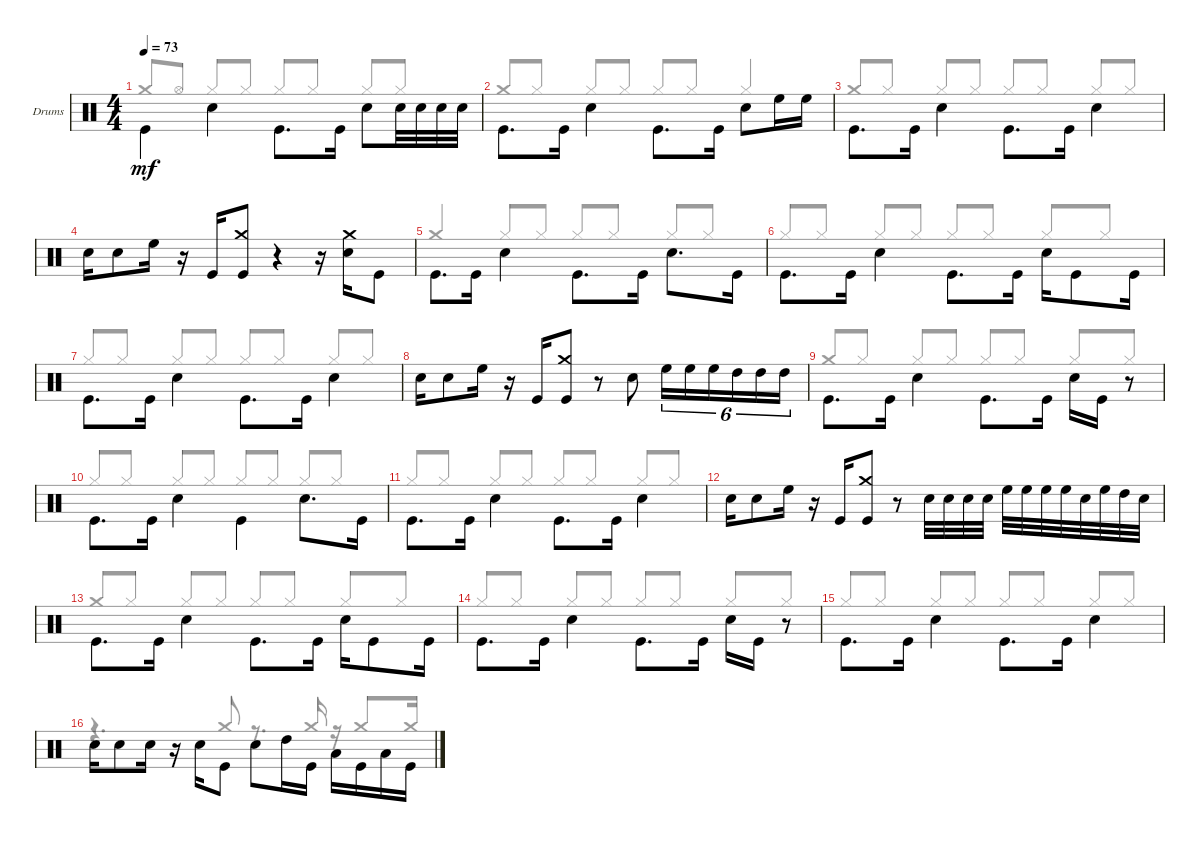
\defaultSystemsLayout 4
\bracketExtendMode groupsimilarinstruments
\firstSystemTrackNameOrientation horizontal
\otherSystemsTrackNameOrientation horizontal
\track ("Drumkit" "Drums") {solo instrument percussion}
\staff {score}
\articulation defaults
\voice
\ts (4 4)
\tempo 73
\clef neutral
\ks c "Kick (hit)".4{dy mf beam invert} "Snare (hit) 2".4{beam invert} "Kick (hit)".8{d beam invert} "Kick (hit)".16 "Snare (hit) 2".8{beam invert} "Snare (hit) 2".32 "Snare (hit) 2".32 "Snare (hit) 2".32 "Snare (hit) 2".32
|
"Kick (hit)".8{d beam invert} "Kick (hit)".16 "Snare (hit) 2".4 "Kick (hit)".8{d beam invert} "Kick (hit)".16 "Snare (hit) 2".8{beam invert} "High Floor Tom (hit)".16 "High Floor Tom (hit)".16 |
"Kick (hit)".8{d beam invert} "Kick (hit)".16 "Snare (hit) 2".4{beam invert} "Kick (hit)".8{d beam invert} "Kick (hit)".16 "Snare (hit) 2".4{beam invert} |
"Snare (hit) 2".16 "Snare (hit) 2".8 "High Floor Tom (hit)".16 r.16 "Kick (hit)".16{beam invert} ("Kick (hit)" "Crash medium (hit)").8 r.4 r.16 ("Snare (hit) 2" "Crash medium (hit)").16 "Kick (hit)".8 |
"Kick (hit)".8{d beam invert} "Kick (hit)".16 "Snare (hit) 2".4{beam invert} "Kick (hit)".8{d beam invert} "Kick (hit)".16 "Snare (hit) 2".8{d beam invert} "Kick (hit)".16 |
"Kick (hit)".8{d beam invert} "Kick (hit)".16 "Snare (hit) 2".4{beam invert} "Kick (hit)".8{d beam invert} "Kick (hit)".16 "Snare (hit) 2".16{beam invert} "Kick (hit)".8 "Kick (hit)".16 |
"Kick (hit)".8{d beam invert} "Kick (hit)".16 "Snare (hit) 2".4{beam invert} "Kick (hit)".8{d beam invert} "Kick (hit)".16 "Snare (hit) 2".4{beam invert} |
"Snare (hit) 2".16 "Snare (hit) 2".8 "High Floor Tom (hit)".16 r.16 "Kick (hit)".16{beam invert} ("Kick (hit)" "Crash medium (hit)").8 r.8 "Snare (hit) 2".8 "High Floor Tom (hit)".16{tu (6 4)} "High Floor Tom (hit)".16{tu (6 4)} "High Floor Tom (hit)".16{tu (6 4)} "High Tom (hit)".16{tu (6 4)} "High Tom (hit)".16{tu (6 4)} "High Tom (hit)".16{tu (6 4)} |
"Kick (hit)".8{d beam invert} "Kick (hit)".16 "Snare (hit) 2".4{beam invert} "Kick (hit)".8{d beam invert} "Kick (hit)".16 "Snare (hit) 2".16{beam invert} "Kick (hit)".16 r.8 |
"Kick (hit)".8{d beam invert} "Kick (hit)".16 "Snare (hit) 2".4{beam invert} "Kick (hit)".4{beam invert} "Snare (hit) 2".8{d beam invert} "Kick (hit)".16 |
"Kick (hit)".8{d beam invert} "Kick (hit)".16 "Snare (hit) 2".4{beam invert} "Kick (hit)".8{d beam invert} "Kick (hit)".16 "Snare (hit) 2".4{beam invert} |
"Snare (hit) 2".16 "Snare (hit) 2".8 "High Floor Tom (hit)".16 r.16 "Kick (hit)".16{beam invert} ("Kick (hit)" "Crash medium (hit)").8 r.8 "Snare (hit) 2".32 "Snare (hit) 2".32 "Snare (hit) 2".32 "Snare (hit) 2".32 "High Floor Tom (hit)".32 "High Floor Tom (hit)".32 "High Floor Tom (hit)".32 "High Floor Tom (hit)".32 "Snare (hit) 2".32 "High Floor Tom (hit)".32 "High Tom (hit)".32 "Snare (hit) 2".32 |
"Kick (hit)".8{d beam invert} "Kick (hit)".16 "Snare (hit) 2".4{beam invert} "Kick (hit)".8{d beam invert} "Kick (hit)".16 "Snare (hit) 2".16{beam invert} "Kick (hit)".8 "Kick (hit)".16 |
"Kick (hit)".8{d beam invert} "Kick (hit)".16 "Snare (hit) 2".4{beam invert} "Kick (hit)".8{d beam invert} "Kick (hit)".16 "Snare (hit) 2".16{beam invert} "Kick (hit)".16 r.8 |
"Kick (hit)".8{d beam invert} "Kick (hit)".16 "Snare (hit) 2".4{beam invert} "Kick (hit)".8{d beam invert} "Kick (hit)".16 "Snare (hit) 2".4{beam invert} |
"Snare (hit) 2".16{beam invert} "Snare (hit) 2".8 "Snare (hit) 2".16 r.16 "Snare (hit) 2".16{beam invert} "Kick (hit)".8 "Snare (hit) 2".8{beam invert} "High Tom (hit)".16 "Kick (hit)".16 "Low Tom (hit)".16{beam invert} "Kick (hit)".16 "Low Tom (hit)".16 "Kick (hit)".16
\voice
\clef neutral
\ottava regular
\simile none
\ks c "Crash medium (hit)".8{dy mf beam invert} "Hi-Hat (open)".8 "Hi-Hat (closed)".8{beam invert} "Hi-Hat (closed)".8 "Hi-Hat (closed)".8{beam invert} "Hi-Hat (closed)".8 "Hi-Hat (closed)".8{beam invert} "Hi-Hat (closed)".8
|
"Crash medium (hit)".8{beam invert} "Hi-Hat (closed)".8 "Hi-Hat (closed)".8{beam invert} "Hi-Hat (closed)".8 "Hi-Hat (closed)".8{beam invert} "Hi-Hat (closed)".8 "Hi-Hat (closed)".4{beam invert} |
"Crash medium (hit)".8{beam invert} "Hi-Hat (closed)".8 "Hi-Hat (closed)".8{beam invert} "Hi-Hat (closed)".8 "Hi-Hat (closed)".8{beam invert} "Hi-Hat (closed)".8 "Hi-Hat (closed)".8{beam invert} "Hi-Hat (closed)".8 |
|
"Crash medium (hit)".4{beam invert} "Hi-Hat (closed)".8{beam invert} "Hi-Hat (closed)".8 "Hi-Hat (closed)".8{beam invert} "Hi-Hat (closed)".8 "Hi-Hat (closed)".8{beam invert} "Hi-Hat (closed)".8 |
"Hi-Hat (closed)".8{beam invert} "Hi-Hat (closed)".8 "Hi-Hat (closed)".8{beam invert} "Hi-Hat (closed)".8 "Hi-Hat (closed)".8{beam invert} "Hi-Hat (closed)".8 "Hi-Hat (closed)".8{beam invert} "Hi-Hat (closed)".8 |
"Hi-Hat (closed)".8{beam invert} "Hi-Hat (closed)".8 "Hi-Hat (closed)".8{beam invert} "Hi-Hat (closed)".8 "Hi-Hat (closed)".8{beam invert} "Hi-Hat (closed)".8 "Hi-Hat (closed)".8{beam invert} "Hi-Hat (closed)".8 |
|
"Crash medium (hit)".8{beam invert} "Hi-Hat (closed)".8 "Hi-Hat (closed)".8{beam invert} "Hi-Hat (closed)".8 "Hi-Hat (closed)".8{beam invert} "Hi-Hat (closed)".8 "Hi-Hat (closed)".8{beam invert} "Hi-Hat (closed)".8 |
"Hi-Hat (closed)".8{beam invert} "Hi-Hat (closed)".8 "Hi-Hat (closed)".8{beam invert} "Hi-Hat (closed)".8 "Hi-Hat (closed)".8{beam invert} "Hi-Hat (closed)".8 "Hi-Hat (closed)".8{beam invert} "Hi-Hat (closed)".8 |
"Hi-Hat (closed)".8{beam invert} "Hi-Hat (closed)".8 "Hi-Hat (closed)".8{beam invert} "Hi-Hat (closed)".8 "Hi-Hat (closed)".8{beam invert} "Hi-Hat (closed)".8 "Hi-Hat (closed)".8{beam invert} "Hi-Hat (closed)".8 |
|
"Crash medium (hit)".8{beam invert} "Hi-Hat (closed)".8 "Hi-Hat (closed)".8{beam invert} "Hi-Hat (closed)".8 "Hi-Hat (closed)".8{beam invert} "Hi-Hat (closed)".8 "Hi-Hat (closed)".8{beam invert} "Hi-Hat (closed)".8 |
"Hi-Hat (closed)".8{beam invert} "Hi-Hat (closed)".8 "Hi-Hat (closed)".8{beam invert} "Hi-Hat (closed)".8 "Hi-Hat (closed)".8{beam invert} "Hi-Hat (closed)".8 "Hi-Hat (closed)".8{beam invert} "Hi-Hat (closed)".8 |
"Hi-Hat (closed)".8{beam invert} "Hi-Hat (closed)".8 "Hi-Hat (closed)".8{beam invert} "Hi-Hat (closed)".8 "Hi-Hat (closed)".8{beam invert} "Hi-Hat (closed)".8 "Hi-Hat (closed)".8{beam invert} "Hi-Hat (closed)".8 |
r.4{d beam invert} "Crash medium (hit)".8{beam invert} r.8{d beam invert} "Crash medium (hit)".16{beam invert} r.16{beam invert} "Crash medium (hit)".8{beam invert} "Crash medium (hit)".16
